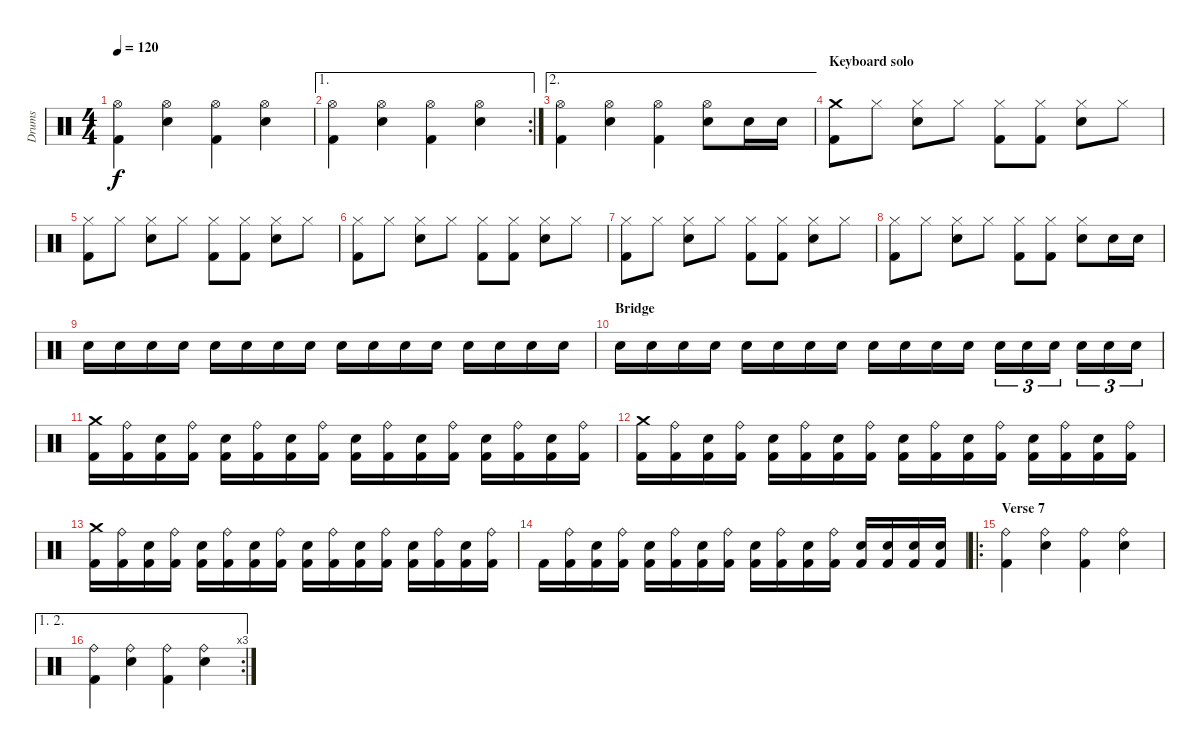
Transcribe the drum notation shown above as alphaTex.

\track ("Drums" "Drums") {instrument percussion}
\staff {score}
\articulation defaults
\ts (4 4)
\tempo 120
\clef neutral
\ks c
("Hi-Hat (open)" "Kick (hit) 2").4{dy f} ("Hi-Hat (open)" "Electric Snare (hit)").4 ("Hi-Hat (open)" "Kick (hit) 2").4 ("Hi-Hat (open)" "Electric Snare (hit)").4 |
\ae 1
\rc 2
("Hi-Hat (open)" "Kick (hit) 2").4 ("Hi-Hat (open)" "Electric Snare (hit)").4 ("Hi-Hat (open)" "Kick (hit) 2").4 ("Hi-Hat (open)" "Electric Snare (hit)").4 |
\ae 2
("Hi-Hat (open)" "Kick (hit) 2").4 ("Hi-Hat (open)" "Electric Snare (hit)").4 ("Hi-Hat (open)" "Kick (hit) 2").4 ("Hi-Hat (open)" "Electric Snare (hit)").8 "Electric Snare (hit)".16 "Electric Snare (hit)".16 |
\section ("" "Keyboard solo")
("Crash medium (hit)" "Kick (hit) 2").8 "Hi-Hat (closed)".8 ("Hi-Hat (closed)" "Electric Snare (hit)").8 "Hi-Hat (closed)".8 ("Hi-Hat (closed)" "Kick (hit) 2").8 ("Hi-Hat (closed)" "Kick (hit) 2").8 ("Hi-Hat (closed)" "Electric Snare (hit)").8 "Hi-Hat (closed)".8 |
("Hi-Hat (closed)" "Kick (hit) 2").8 "Hi-Hat (closed)".8 ("Hi-Hat (closed)" "Electric Snare (hit)").8 "Hi-Hat (closed)".8 ("Hi-Hat (closed)" "Kick (hit) 2").8 ("Hi-Hat (closed)" "Kick (hit) 2").8 ("Hi-Hat (closed)" "Electric Snare (hit)").8 "Hi-Hat (closed)".8 |
("Hi-Hat (closed)" "Kick (hit) 2").8 "Hi-Hat (closed)".8 ("Hi-Hat (closed)" "Electric Snare (hit)").8 "Hi-Hat (closed)".8 ("Hi-Hat (closed)" "Kick (hit) 2").8 ("Hi-Hat (closed)" "Kick (hit) 2").8 ("Hi-Hat (closed)" "Electric Snare (hit)").8 "Hi-Hat (closed)".8 |
("Hi-Hat (closed)" "Kick (hit) 2").8 "Hi-Hat (closed)".8 ("Hi-Hat (closed)" "Electric Snare (hit)").8 "Hi-Hat (closed)".8 ("Hi-Hat (closed)" "Kick (hit) 2").8 ("Hi-Hat (closed)" "Kick (hit) 2").8 ("Hi-Hat (closed)" "Electric Snare (hit)").8 "Hi-Hat (closed)".8 |
("Hi-Hat (closed)" "Kick (hit) 2").8 "Hi-Hat (closed)".8 ("Hi-Hat (closed)" "Electric Snare (hit)").8 "Hi-Hat (closed)".8 ("Hi-Hat (closed)" "Kick (hit) 2").8 ("Hi-Hat (closed)" "Kick (hit) 2").8 ("Hi-Hat (closed)" "Electric Snare (hit)").8 "Electric Snare (hit)".16 "Electric Snare (hit)".16 |
"Electric Snare (hit)".16 "Electric Snare (hit)".16 "Electric Snare (hit)".16 "Electric Snare (hit)".16 "Electric Snare (hit)".16 "Electric Snare (hit)".16 "Electric Snare (hit)".16 "Electric Snare (hit)".16 "Electric Snare (hit)".16 "Electric Snare (hit)".16 "Electric Snare (hit)".16 "Electric Snare (hit)".16 "Electric Snare (hit)".16 "Electric Snare (hit)".16 "Electric Snare (hit)".16 "Electric Snare (hit)".16 |
\section ("" "Bridge")
"Electric Snare (hit)".16 "Electric Snare (hit)".16 "Electric Snare (hit)".16 "Electric Snare (hit)".16 "Electric Snare (hit)".16 "Electric Snare (hit)".16 "Electric Snare (hit)".16 "Electric Snare (hit)".16 "Electric Snare (hit)".16 "Electric Snare (hit)".16 "Electric Snare (hit)".16 "Electric Snare (hit)".16 "Electric Snare (hit)".16{tu (3 2)} "Electric Snare (hit)".16{tu (3 2)} "Electric Snare (hit)".16{tu (3 2)} "Electric Snare (hit)".16{tu (3 2)} "Electric Snare (hit)".16{tu (3 2)} "Electric Snare (hit)".16{tu (3 2)} |
("Kick (hit) 2" "Crash medium (hit)").16 ("Kick (hit) 2" "Ride (bell)").16 ("Kick (hit) 2" "Electric Snare (hit)").16 ("Kick (hit) 2" "Ride (bell)").16 ("Kick (hit) 2" "Electric Snare (hit)").16 ("Kick (hit) 2" "Ride (bell)").16 ("Kick (hit) 2" "Electric Snare (hit)").16 ("Kick (hit) 2" "Ride (bell)").16 ("Kick (hit) 2" "Electric Snare (hit)").16 ("Kick (hit) 2" "Ride (bell)").16 ("Kick (hit) 2" "Electric Snare (hit)").16 ("Kick (hit) 2" "Ride (bell)").16 ("Kick (hit) 2" "Electric Snare (hit)").16 ("Kick (hit) 2" "Ride (bell)").16 ("Kick (hit) 2" "Electric Snare (hit)").16 ("Kick (hit) 2" "Ride (bell)").16 |
("Kick (hit) 2" "Crash medium (hit)").16 ("Kick (hit) 2" "Ride (bell)").16 ("Kick (hit) 2" "Electric Snare (hit)").16 ("Kick (hit) 2" "Ride (bell)").16 ("Kick (hit) 2" "Electric Snare (hit)").16 ("Kick (hit) 2" "Ride (bell)").16 ("Kick (hit) 2" "Electric Snare (hit)").16 ("Kick (hit) 2" "Ride (bell)").16 ("Kick (hit) 2" "Electric Snare (hit)").16 ("Kick (hit) 2" "Ride (bell)").16 ("Kick (hit) 2" "Electric Snare (hit)").16 ("Kick (hit) 2" "Ride (bell)").16 ("Kick (hit) 2" "Electric Snare (hit)").16 ("Kick (hit) 2" "Ride (bell)").16 ("Kick (hit) 2" "Electric Snare (hit)").16 ("Kick (hit) 2" "Ride (bell)").16 |
("Kick (hit) 2" "Crash medium (hit)").16 ("Kick (hit) 2" "Ride (bell)").16 ("Kick (hit) 2" "Electric Snare (hit)").16 ("Kick (hit) 2" "Ride (bell)").16 ("Kick (hit) 2" "Electric Snare (hit)").16 ("Kick (hit) 2" "Ride (bell)").16 ("Kick (hit) 2" "Electric Snare (hit)").16 ("Kick (hit) 2" "Ride (bell)").16 ("Kick (hit) 2" "Electric Snare (hit)").16 ("Kick (hit) 2" "Ride (bell)").16 ("Kick (hit) 2" "Electric Snare (hit)").16 ("Kick (hit) 2" "Ride (bell)").16 ("Kick (hit) 2" "Electric Snare (hit)").16 ("Kick (hit) 2" "Ride (bell)").16 ("Kick (hit) 2" "Electric Snare (hit)").16 ("Kick (hit) 2" "Ride (bell)").16 |
"Kick (hit) 2".16 ("Kick (hit) 2" "Ride (bell)").16 ("Kick (hit) 2" "Electric Snare (hit)").16 ("Kick (hit) 2" "Ride (bell)").16 ("Kick (hit) 2" "Electric Snare (hit)").16 ("Kick (hit) 2" "Ride (bell)").16 ("Kick (hit) 2" "Electric Snare (hit)").16 ("Kick (hit) 2" "Ride (bell)").16 ("Kick (hit) 2" "Electric Snare (hit)").16 ("Kick (hit) 2" "Ride (bell)").16 ("Kick (hit) 2" "Electric Snare (hit)").16 ("Kick (hit) 2" "Ride (bell)").16 ("Kick (hit) 2" "Electric Snare (hit)").16 ("Kick (hit) 2" "Electric Snare (hit)").16 ("Kick (hit) 2" "Electric Snare (hit)").16 ("Kick (hit) 2" "Electric Snare (hit)").16 |
\ro
\section ("" "Verse 7")
("Ride (bell)" "Kick (hit) 2").4 ("Ride (bell)" "Electric Snare (hit)").4 ("Ride (bell)" "Kick (hit) 2").4 ("Ride (bell)" "Electric Snare (hit)").4 |
\ae (1 2)
\rc 3
("Ride (bell)" "Kick (hit) 2").4 ("Ride (bell)" "Electric Snare (hit)").4 ("Ride (bell)" "Kick (hit) 2").4 ("Ride (bell)" "Electric Snare (hit)").4
